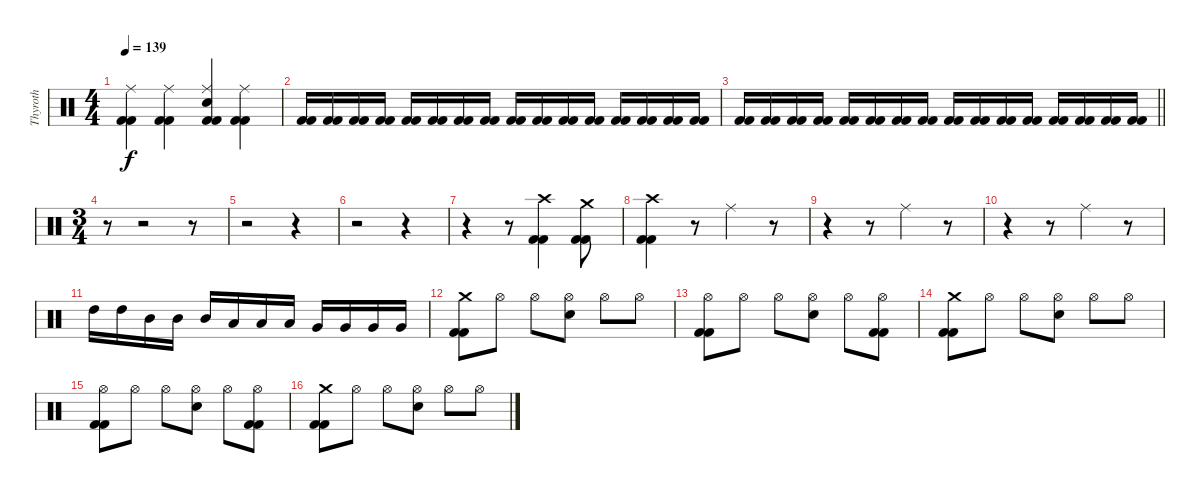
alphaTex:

\track ("Thyroth" "Thyroth") {instrument percussion}
\staff {score}
\articulation defaults
\ts (4 4)
\tempo 139
\clef neutral
\ks c
("Kick (hit) 2" "Kick (hit) 2" "Ride (middle)").4{dy f} ("Kick (hit) 2" "Kick (hit) 2" "Ride (middle)").4 ("Kick (hit) 2" "Kick (hit) 2" "Snare (hit) 2" "Ride (middle)").4 ("Kick (hit) 2" "Kick (hit) 2" "Ride (middle)").4 |
("Kick (hit) 2" "Kick (hit) 2").16{volume 0} ("Kick (hit) 2" "Kick (hit) 2").16 ("Kick (hit) 2" "Kick (hit) 2").16 ("Kick (hit) 2" "Kick (hit) 2").16 ("Kick (hit) 2" "Kick (hit) 2").16 ("Kick (hit) 2" "Kick (hit) 2").16 ("Kick (hit) 2" "Kick (hit) 2").16 ("Kick (hit) 2" "Kick (hit) 2").16 ("Kick (hit) 2" "Kick (hit) 2").16 ("Kick (hit) 2" "Kick (hit) 2").16 ("Kick (hit) 2" "Kick (hit) 2").16 ("Kick (hit) 2" "Kick (hit) 2").16 ("Kick (hit) 2" "Kick (hit) 2").16 ("Kick (hit) 2" "Kick (hit) 2").16 ("Kick (hit) 2" "Kick (hit) 2").16 ("Kick (hit) 2" "Kick (hit) 2").16 |
\barLineRight lightlight
("Kick (hit) 2" "Kick (hit) 2").16 ("Kick (hit) 2" "Kick (hit) 2").16 ("Kick (hit) 2" "Kick (hit) 2").16 ("Kick (hit) 2" "Kick (hit) 2").16 ("Kick (hit) 2" "Kick (hit) 2").16 ("Kick (hit) 2" "Kick (hit) 2").16 ("Kick (hit) 2" "Kick (hit) 2").16 ("Kick (hit) 2" "Kick (hit) 2").16 ("Kick (hit) 2" "Kick (hit) 2").16 ("Kick (hit) 2" "Kick (hit) 2").16 ("Kick (hit) 2" "Kick (hit) 2").16 ("Kick (hit) 2" "Kick (hit) 2").16 ("Kick (hit) 2" "Kick (hit) 2").16 ("Kick (hit) 2" "Kick (hit) 2").16 ("Kick (hit) 2" "Kick (hit) 2").16 ("Kick (hit) 2" "Kick (hit) 2").16 |
\ts (3 4)
r.8 r.2 r.8 |
r.2 r.4 |
r.2 r.4 |
r.4{volume 16} r.8 ("Kick (hit) 2" "Kick (hit) 2" "Crash high (hit)").4 ("Kick (hit) 2" "Kick (hit) 2" "Crash medium (hit)").8 |
("Kick (hit) 2" "Kick (hit) 2" "Crash high (hit)").4 r.8 "Ride (middle)".4 r.8 |
r.4 r.8 "Ride (middle)".4 r.8 |
r.4 r.8 "Ride (middle)".4 r.8 |
"High Tom (hit)".16 "High Tom (hit)".16 "Mid Tom (hit)".16 "Mid Tom (hit)".16 "Mid Tom (hit)".16 "Low Tom (hit)".16 "Low Tom (hit)".16 "Low Tom (hit)".16 "Very Low Tom (hit)".16 "Very Low Tom (hit)".16 "Very Low Tom (hit)".16 "Very Low Tom (hit)".16 |
("Kick (hit) 2" "Kick (hit) 2" "Crash medium (hit)").8 "Hi-Hat (open)".8 "Hi-Hat (open)".8 ("Snare (hit) 2" "Hi-Hat (open)").8 "Hi-Hat (open)".8 "Hi-Hat (open)".8 |
("Kick (hit) 2" "Kick (hit) 2" "Hi-Hat (open)").8 "Hi-Hat (open)".8 "Hi-Hat (open)".8 ("Snare (hit) 2" "Hi-Hat (open)").8 "Hi-Hat (open)".8 ("Kick (hit) 2" "Kick (hit) 2" "Hi-Hat (open)").8 |
("Kick (hit) 2" "Kick (hit) 2" "Crash medium (hit)").8 "Hi-Hat (open)".8 "Hi-Hat (open)".8 ("Snare (hit) 2" "Hi-Hat (open)").8 "Hi-Hat (open)".8 "Hi-Hat (open)".8 |
("Kick (hit) 2" "Kick (hit) 2" "Hi-Hat (open)").8 "Hi-Hat (open)".8 "Hi-Hat (open)".8 ("Snare (hit) 2" "Hi-Hat (open)").8 "Hi-Hat (open)".8 ("Kick (hit) 2" "Kick (hit) 2" "Hi-Hat (open)").8 |
("Kick (hit) 2" "Kick (hit) 2" "Crash medium (hit)").8 "Hi-Hat (open)".8 "Hi-Hat (open)".8 ("Snare (hit) 2" "Hi-Hat (open)").8 "Hi-Hat (open)".8 "Hi-Hat (open)".8
